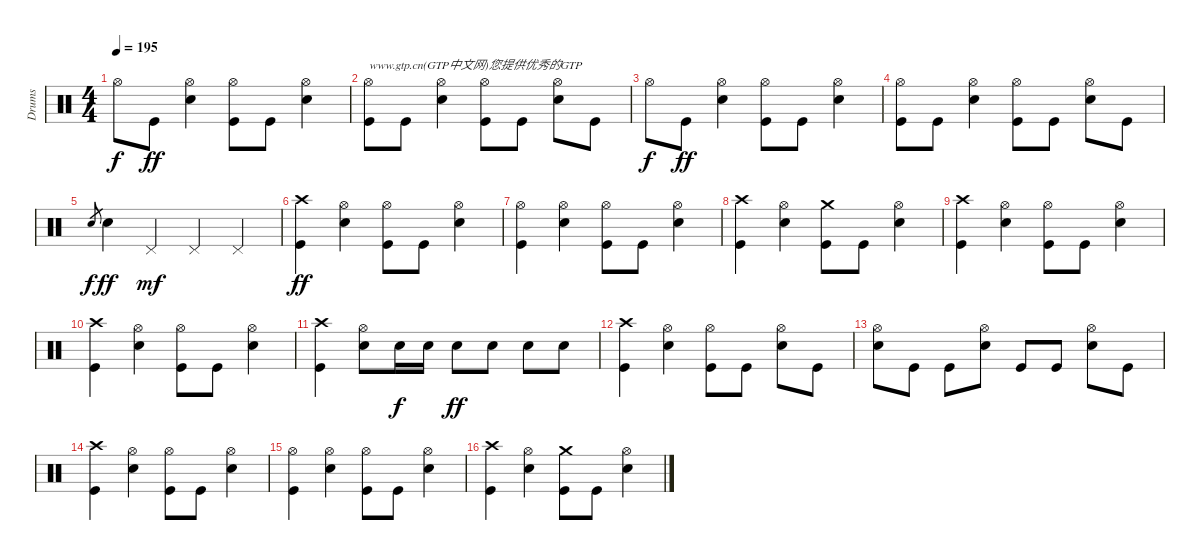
\track ("Drums" "Drums") {instrument percussion}
\staff {score}
\articulation defaults
\ts (4 4)
\tempo 195
\clef neutral
\ks c "Hi-Hat (open)".8{dy f} "Kick (hit)".8{dy ff}
("Hi-Hat (open)" "Snare (hit) 2").4 ("Hi-Hat (open)" "Kick (hit)").8 "Kick (hit)".8 ("Hi-Hat (open)" "Snare (hit) 2").4 |
("Hi-Hat (open)" "Kick (hit)").8{txt "www.gtp.cn(GTP中文网)您提供优秀的GTP"} "Kick (hit)".8 ("Hi-Hat (open)" "Snare (hit) 2").4 ("Hi-Hat (open)" "Kick (hit)").8 "Kick (hit)".8 ("Hi-Hat (open)" "Snare (hit) 2").8 "Kick (hit)".8 |
"Hi-Hat (open)".8{dy f} "Kick (hit)".8{dy ff} ("Hi-Hat (open)" "Snare (hit) 2").4 ("Hi-Hat (open)" "Kick (hit)").8 "Kick (hit)".8 ("Hi-Hat (open)" "Snare (hit) 2").4 |
("Hi-Hat (open)" "Kick (hit)").8 "Kick (hit)".8 ("Hi-Hat (open)" "Snare (hit) 2").4 ("Hi-Hat (open)" "Kick (hit)").8 "Kick (hit)".8 ("Hi-Hat (open)" "Snare (hit) 2").8 "Kick (hit)".8 |
"Snare (hit) 2".8{gr dy f} "Snare (hit) 2".4{dy ff} "Pedal Hi-Hat (hit)".4{dy mf} "Pedal Hi-Hat (hit)".4 "Pedal Hi-Hat (hit)".4 |
("Crash high (hit)" "Kick (hit)").4{dy ff} ("Hi-Hat (open)" "Snare (hit) 2").4 ("Hi-Hat (open)" "Kick (hit)").8 "Kick (hit)".8 ("Hi-Hat (open)" "Snare (hit) 2").4 |
("Hi-Hat (open)" "Kick (hit)").4 ("Hi-Hat (open)" "Snare (hit) 2").4 ("Hi-Hat (open)" "Kick (hit)").8 "Kick (hit)".8 ("Hi-Hat (open)" "Snare (hit) 2").4 |
("Crash high (hit)" "Kick (hit)").4 ("Hi-Hat (open)" "Snare (hit) 2").4 ("Crash medium (hit)" "Kick (hit)").8 "Kick (hit)".8 ("Hi-Hat (open)" "Snare (hit) 2").4 |
("Crash high (hit)" "Kick (hit)").4 ("Hi-Hat (open)" "Snare (hit) 2").4 ("Hi-Hat (open)" "Kick (hit)").8 "Kick (hit)".8 ("Hi-Hat (open)" "Snare (hit) 2").4 |
("Crash high (hit)" "Kick (hit)").4 ("Hi-Hat (open)" "Snare (hit) 2").4 ("Hi-Hat (open)" "Kick (hit)").8 "Kick (hit)".8 ("Hi-Hat (open)" "Snare (hit) 2").4 |
("Crash high (hit)" "Kick (hit)").4 ("Hi-Hat (open)" "Snare (hit) 2").8 "Snare (hit) 2".16{dy f} "Snare (hit) 2".16 "Snare (hit) 2".8{dy ff} "Snare (hit) 2".8 "Snare (hit) 2".8 "Snare (hit) 2".8 |
("Crash high (hit)" "Kick (hit)").4 ("Hi-Hat (open)" "Snare (hit) 2").4 ("Hi-Hat (open)" "Kick (hit)").8 "Kick (hit)".8 ("Hi-Hat (open)" "Snare (hit) 2").8 "Kick (hit)".8 |
("Hi-Hat (open)" "Snare (hit) 2").8 "Kick (hit)".8 "Kick (hit)".8 ("Hi-Hat (open)" "Snare (hit) 2").8 "Kick (hit)".8 "Kick (hit)".8 ("Hi-Hat (open)" "Snare (hit) 2").8 "Kick (hit)".8 |
("Crash high (hit)" "Kick (hit)").4 ("Hi-Hat (open)" "Snare (hit) 2").4 ("Hi-Hat (open)" "Kick (hit)").8 "Kick (hit)".8 ("Hi-Hat (open)" "Snare (hit) 2").4 |
("Hi-Hat (open)" "Kick (hit)").4 ("Hi-Hat (open)" "Snare (hit) 2").4 ("Hi-Hat (open)" "Kick (hit)").8 "Kick (hit)".8 ("Hi-Hat (open)" "Snare (hit) 2").4 |
("Crash high (hit)" "Kick (hit)").4 ("Hi-Hat (open)" "Snare (hit) 2").4 ("Crash medium (hit)" "Kick (hit)").8 "Kick (hit)".8 ("Hi-Hat (open)" "Snare (hit) 2").4
